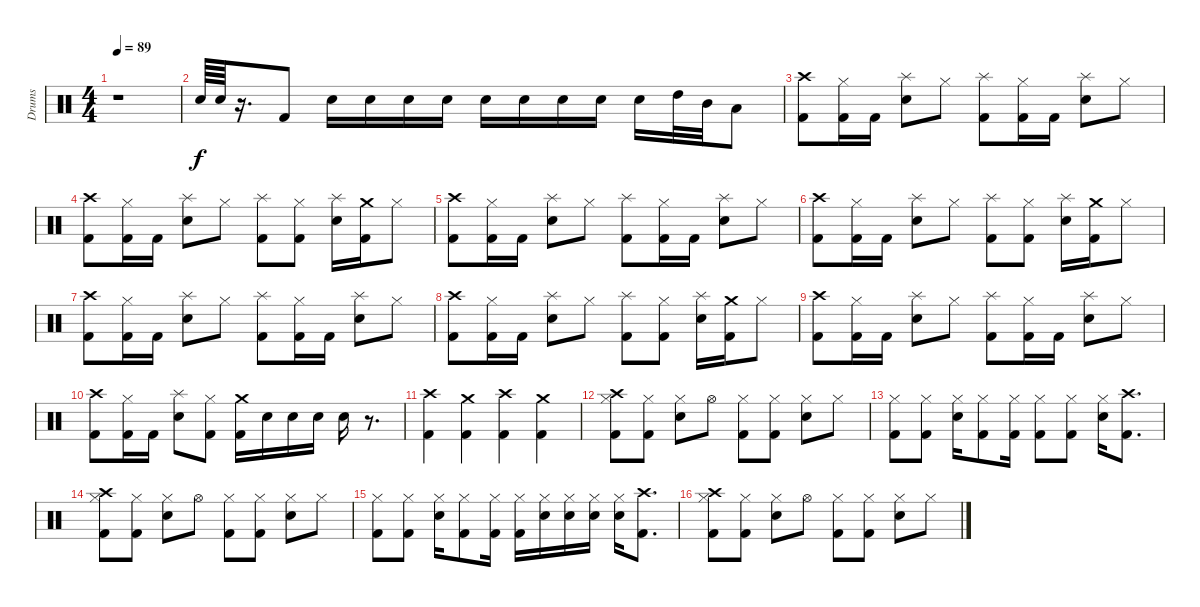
\track ("Drums" "Drums") {instrument percussion}
\staff {score}
\articulation defaults
\ts (4 4)
\tempo 89
\clef neutral
\ks c
r.1{dy f} |
"Snare (hit) 2".64 "Snare (hit) 2".64 r.16{d} "Kick (hit) 2".8 "Snare (hit) 2".16 "Snare (hit) 2".16 "Snare (hit) 2".16 "Snare (hit) 2".16 "Snare (hit) 2".16 "Snare (hit) 2".16 "Snare (hit) 2".16 "Snare (hit) 2".16 "Snare (hit) 2".16 "High Tom (hit)".32 "Mid Tom (hit)".32 "Low Tom (hit)".8 |
("Kick (hit) 2" "Crash high (hit)").8 ("Kick (hit) 2" "Hi-Hat (closed)").16 "Kick (hit) 2".16 ("Snare (hit) 2" "Splash (hit)").8 "Hi-Hat (closed)".8 ("Kick (hit) 2" "Splash (hit)").8 ("Kick (hit) 2" "Hi-Hat (closed)").16 "Kick (hit) 2".16 ("Snare (hit) 2" "Splash (hit)").8 "Hi-Hat (closed)".8 |
("Kick (hit) 2" "Crash high (hit)").8 ("Kick (hit) 2" "Hi-Hat (closed)").16 "Kick (hit) 2".16 ("Snare (hit) 2" "Splash (hit)").8 "Hi-Hat (closed)".8 ("Kick (hit) 2" "Splash (hit)").8 ("Kick (hit) 2" "Hi-Hat (closed)").8 ("Snare (hit) 2" "Splash (hit)").16 ("Kick (hit) 2" "Crash medium (hit)").16 "Hi-Hat (closed)".8 |
("Kick (hit) 2" "Crash high (hit)").8 ("Kick (hit) 2" "Hi-Hat (closed)").16 "Kick (hit) 2".16 ("Snare (hit) 2" "Splash (hit)").8 "Hi-Hat (closed)".8 ("Kick (hit) 2" "Splash (hit)").8 ("Kick (hit) 2" "Hi-Hat (closed)").16 "Kick (hit) 2".16 ("Snare (hit) 2" "Splash (hit)").8 "Hi-Hat (closed)".8 |
("Kick (hit) 2" "Crash high (hit)").8 ("Kick (hit) 2" "Hi-Hat (closed)").16 "Kick (hit) 2".16 ("Snare (hit) 2" "Splash (hit)").8 "Hi-Hat (closed)".8 ("Kick (hit) 2" "Splash (hit)").8 ("Kick (hit) 2" "Hi-Hat (closed)").8 ("Snare (hit) 2" "Splash (hit)").16 ("Kick (hit) 2" "Crash medium (hit)").16 "Hi-Hat (closed)".8 |
("Kick (hit) 2" "Crash high (hit)").8 ("Kick (hit) 2" "Hi-Hat (closed)").16 "Kick (hit) 2".16 ("Snare (hit) 2" "Splash (hit)").8 "Hi-Hat (closed)".8 ("Kick (hit) 2" "Splash (hit)").8 ("Kick (hit) 2" "Hi-Hat (closed)").16 "Kick (hit) 2".16 ("Snare (hit) 2" "Splash (hit)").8 "Hi-Hat (closed)".8 |
("Kick (hit) 2" "Crash high (hit)").8 ("Kick (hit) 2" "Hi-Hat (closed)").16 "Kick (hit) 2".16 ("Snare (hit) 2" "Splash (hit)").8 "Hi-Hat (closed)".8 ("Kick (hit) 2" "Splash (hit)").8 ("Kick (hit) 2" "Hi-Hat (closed)").8 ("Snare (hit) 2" "Splash (hit)").16 ("Kick (hit) 2" "Crash medium (hit)").16 "Hi-Hat (closed)".8 |
("Kick (hit) 2" "Crash high (hit)").8 ("Kick (hit) 2" "Hi-Hat (closed)").16 "Kick (hit) 2".16 ("Snare (hit) 2" "Splash (hit)").8 "Hi-Hat (closed)".8 ("Kick (hit) 2" "Splash (hit)").8 ("Kick (hit) 2" "Hi-Hat (closed)").16 "Kick (hit) 2".16 ("Snare (hit) 2" "Splash (hit)").8 "Hi-Hat (closed)".8 |
("Kick (hit) 2" "Crash high (hit)").8 ("Kick (hit) 2" "Hi-Hat (closed)").16 "Kick (hit) 2".16 ("Snare (hit) 2" "Splash (hit)").8 ("Kick (hit) 2" "Hi-Hat (closed)").8 ("Kick (hit) 2" "Crash medium (hit)").16 "Snare (hit) 2".16 "Snare (hit) 2".16 "Snare (hit) 2".16 "Snare (hit) 2".16 r.8{d} |
("Kick (hit) 2" "Crash high (hit)").4 ("Kick (hit) 2" "Crash medium (hit)").4 ("Kick (hit) 2" "Crash high (hit)").4 ("Kick (hit) 2" "Crash medium (hit)").4 |
("Kick (hit) 2" "Hi-Hat (closed)" "Crash high (hit)").8 ("Kick (hit) 2" "Hi-Hat (closed)").8 ("Snare (hit) 2" "Hi-Hat (closed)").8 "Hi-Hat (open)".8 ("Kick (hit) 2" "Hi-Hat (closed)").8 ("Kick (hit) 2" "Hi-Hat (closed)").8 ("Snare (hit) 2" "Hi-Hat (closed)").8 "Hi-Hat (closed)".8 |
("Kick (hit) 2" "Hi-Hat (closed)").8 ("Kick (hit) 2" "Hi-Hat (closed)").8 ("Snare (hit) 2" "Hi-Hat (closed)").16 ("Kick (hit) 2" "Hi-Hat (closed)").8 ("Kick (hit) 2" "Hi-Hat (closed)").16 ("Kick (hit) 2" "Hi-Hat (closed)").8 ("Kick (hit) 2" "Hi-Hat (closed)").8 ("Snare (hit) 2" "Hi-Hat (closed)").16 ("Kick (hit) 2" "Crash high (hit)").8{d} |
("Kick (hit) 2" "Hi-Hat (closed)" "Crash high (hit)").8 ("Kick (hit) 2" "Hi-Hat (closed)").8 ("Snare (hit) 2" "Hi-Hat (closed)").8 "Hi-Hat (open)".8 ("Kick (hit) 2" "Hi-Hat (closed)").8 ("Kick (hit) 2" "Hi-Hat (closed)").8 ("Snare (hit) 2" "Hi-Hat (closed)").8 "Hi-Hat (closed)".8 |
("Kick (hit) 2" "Hi-Hat (closed)").8 ("Kick (hit) 2" "Hi-Hat (closed)").8 ("Snare (hit) 2" "Hi-Hat (closed)").16 ("Kick (hit) 2" "Hi-Hat (closed)").8 ("Kick (hit) 2" "Hi-Hat (closed)").16 ("Kick (hit) 2" "Hi-Hat (closed)").16 ("Snare (hit) 2" "Hi-Hat (closed)").16 ("Snare (hit) 2" "Hi-Hat (closed)").16 ("Snare (hit) 2" "Hi-Hat (closed)").16 ("Snare (hit) 2" "Hi-Hat (closed)").16 ("Kick (hit) 2" "Crash high (hit)").8{d} |
("Kick (hit) 2" "Hi-Hat (closed)" "Crash high (hit)").8 ("Kick (hit) 2" "Hi-Hat (closed)").8 ("Snare (hit) 2" "Hi-Hat (closed)").8 "Hi-Hat (open)".8 ("Kick (hit) 2" "Hi-Hat (closed)").8 ("Kick (hit) 2" "Hi-Hat (closed)").8 ("Snare (hit) 2" "Hi-Hat (closed)").8 "Hi-Hat (closed)".8
